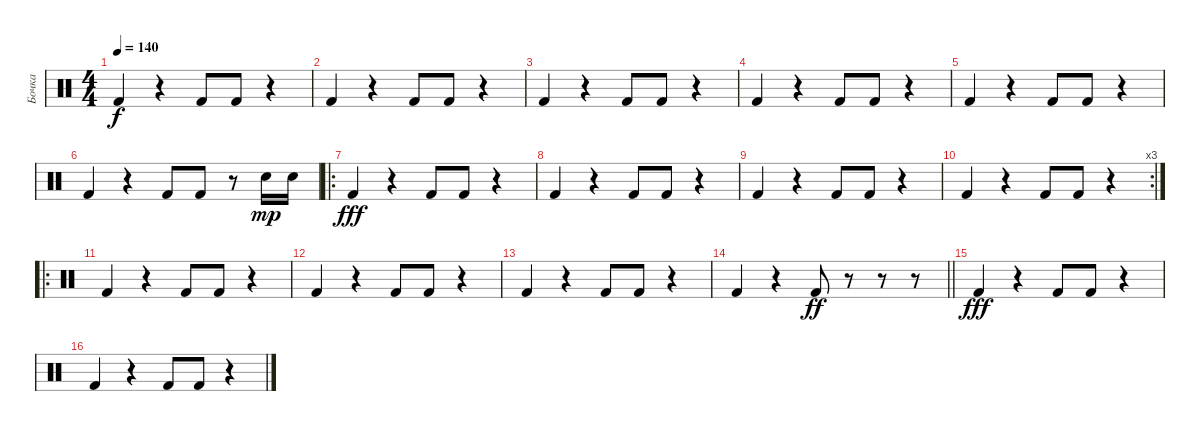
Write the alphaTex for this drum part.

\track ("Бочка" "Бочка") {instrument percussion}
\staff {score}
\articulation defaults
\ts (4 4)
\tempo 140
\clef neutral
\ks c "Kick (hit) 2".4{dy f}
r.4 "Kick (hit) 2".8 "Kick (hit) 2".8 r.4 |
"Kick (hit) 2".4 r.4 "Kick (hit) 2".8 "Kick (hit) 2".8 r.4 |
"Kick (hit) 2".4 r.4 "Kick (hit) 2".8 "Kick (hit) 2".8 r.4 |
"Kick (hit) 2".4 r.4 "Kick (hit) 2".8 "Kick (hit) 2".8 r.4 |
"Kick (hit) 2".4 r.4 "Kick (hit) 2".8 "Kick (hit) 2".8 r.4 |
"Kick (hit) 2".4 r.4 "Kick (hit) 2".8 "Kick (hit) 2".8 r.8 "Electric Snare (hit)".16{dy mp} "Electric Snare (hit)".16 |
\ro "Kick (hit) 2".4{dy fff}
r.4 "Kick (hit) 2".8 "Kick (hit) 2".8 r.4 |
"Kick (hit) 2".4 r.4 "Kick (hit) 2".8 "Kick (hit) 2".8 r.4 |
"Kick (hit) 2".4 r.4 "Kick (hit) 2".8 "Kick (hit) 2".8 r.4 |
\rc 3 "Kick (hit) 2".4
r.4 "Kick (hit) 2".8 "Kick (hit) 2".8 r.4 |
\ro "Kick (hit) 2".4
r.4 "Kick (hit) 2".8 "Kick (hit) 2".8 r.4 |
"Kick (hit) 2".4 r.4 "Kick (hit) 2".8 "Kick (hit) 2".8 r.4 |
"Kick (hit) 2".4 r.4 "Kick (hit) 2".8 "Kick (hit) 2".8 r.4 |
\barLineRight lightlight "Kick (hit) 2".4
r.4 "Kick (hit) 2".8{dy ff} r.8 r.8 r.8 |
"Kick (hit) 2".4{dy fff} r.4 "Kick (hit) 2".8 "Kick (hit) 2".8 r.4 |
"Kick (hit) 2".4 r.4 "Kick (hit) 2".8 "Kick (hit) 2".8 r.4
